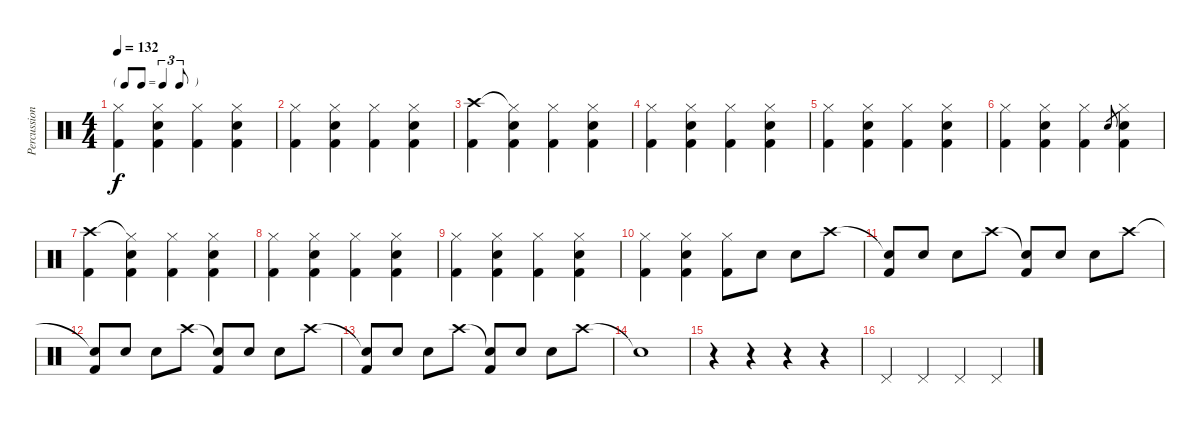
\track ("Percussion" "Percussion") {instrument percussion}
\staff {score}
\articulation defaults
\ts (4 4)
\tf triplet8th
\tempo 132
\clef neutral
\ks c
("Hi-Hat (closed)" "Kick (hit) 2").4{dy f} ("Hi-Hat (closed)" "Snare (hit) 2" "Kick (hit) 2").4 ("Hi-Hat (closed)" "Kick (hit) 2").4 ("Hi-Hat (closed)" "Snare (hit) 2" "Kick (hit) 2").4 |
("Hi-Hat (closed)" "Kick (hit) 2").4 ("Hi-Hat (closed)" "Snare (hit) 2" "Kick (hit) 2").4 ("Hi-Hat (closed)" "Kick (hit) 2").4 ("Hi-Hat (closed)" "Snare (hit) 2" "Kick (hit) 2").4 |
("Crash high (hit)" "Kick (hit) 2").4 ("Hi-Hat (closed)"{t} "Snare (hit) 2" "Kick (hit) 2").4 ("Hi-Hat (closed)" "Kick (hit) 2").4 ("Hi-Hat (closed)" "Snare (hit) 2" "Kick (hit) 2").4 |
("Hi-Hat (closed)" "Kick (hit) 2").4 ("Hi-Hat (closed)" "Snare (hit) 2" "Kick (hit) 2").4 ("Hi-Hat (closed)" "Kick (hit) 2").4 ("Hi-Hat (closed)" "Snare (hit) 2" "Kick (hit) 2").4 |
("Hi-Hat (closed)" "Kick (hit) 2").4 ("Hi-Hat (closed)" "Snare (hit) 2" "Kick (hit) 2").4 ("Hi-Hat (closed)" "Kick (hit) 2").4 ("Hi-Hat (closed)" "Snare (hit) 2" "Kick (hit) 2").4 |
("Hi-Hat (closed)" "Kick (hit) 2").4 ("Hi-Hat (closed)" "Snare (hit) 2" "Kick (hit) 2").4 ("Hi-Hat (closed)" "Kick (hit) 2").4 "Snare (hit) 2".8{gr} ("Hi-Hat (closed)" "Snare (hit) 2" "Kick (hit) 2").4 |
("Crash high (hit)" "Kick (hit) 2").4 ("Hi-Hat (closed)"{t} "Snare (hit) 2" "Kick (hit) 2").4 ("Hi-Hat (closed)" "Kick (hit) 2").4 ("Hi-Hat (closed)" "Snare (hit) 2" "Kick (hit) 2").4 |
("Hi-Hat (closed)" "Kick (hit) 2").4 ("Hi-Hat (closed)" "Snare (hit) 2" "Kick (hit) 2").4 ("Hi-Hat (closed)" "Kick (hit) 2").4 ("Hi-Hat (closed)" "Snare (hit) 2" "Kick (hit) 2").4 |
("Hi-Hat (closed)" "Kick (hit) 2").4 ("Hi-Hat (closed)" "Snare (hit) 2" "Kick (hit) 2").4 ("Hi-Hat (closed)" "Kick (hit) 2").4 ("Hi-Hat (closed)" "Snare (hit) 2" "Kick (hit) 2").4 |
("Hi-Hat (closed)" "Kick (hit) 2").4 ("Hi-Hat (closed)" "Snare (hit) 2" "Kick (hit) 2").4 ("Hi-Hat (closed)" "Kick (hit) 2").8 "Snare (hit) 2".8 "Snare (hit) 2".8 "Crash high (hit)".8 |
("Snare (hit)"{t} "Kick (hit) 2").8 "Snare (hit) 2".8 "Snare (hit) 2".8 "Crash high (hit)".8 ("Snare (hit)"{t} "Kick (hit) 2").8 "Snare (hit) 2".8 "Snare (hit) 2".8 "Crash high (hit)".8 |
("Snare (hit)"{t} "Kick (hit) 2").8 "Snare (hit) 2".8 "Snare (hit) 2".8 "Crash high (hit)".8 ("Snare (hit)"{t} "Kick (hit) 2").8 "Snare (hit) 2".8 "Snare (hit) 2".8 "Crash high (hit)".8 |
("Snare (hit)"{t} "Kick (hit) 2").8 "Snare (hit) 2".8 "Snare (hit) 2".8 "Crash high (hit)".8 ("Snare (hit)"{t} "Kick (hit) 2").8 "Snare (hit) 2".8 "Snare (hit) 2".8 "Crash high (hit)".8 |
"Snare (hit)"{t}.1 |
r.4 r.4 r.4 r.4 |
"Pedal Hi-Hat (hit)".4 "Pedal Hi-Hat (hit)".4 "Pedal Hi-Hat (hit)".4 "Pedal Hi-Hat (hit)".4
